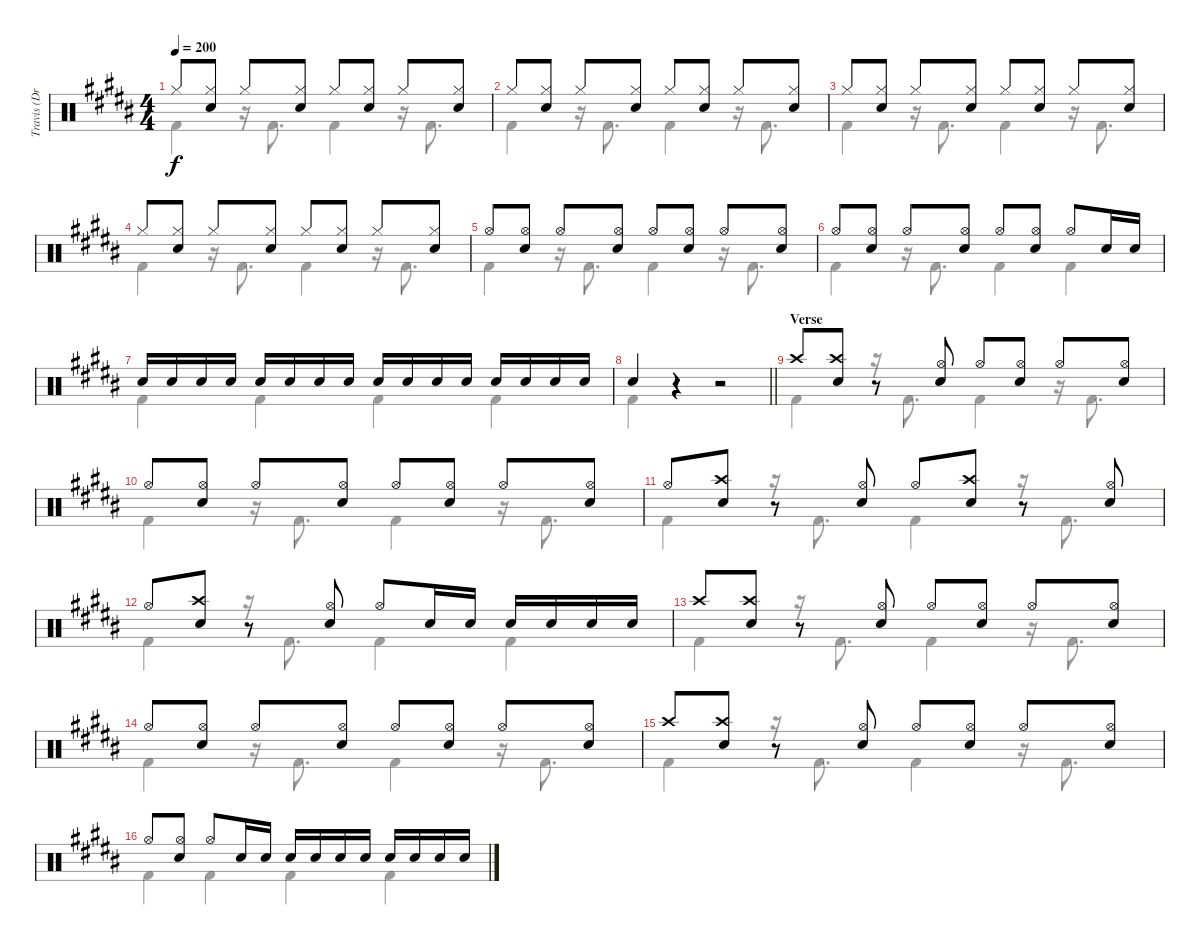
\track ("Travis (Drums)" "Travis (Dr") {instrument percussion}
\staff {score}
\articulation defaults
\voice
\ts (4 4)
\tempo 200
\clef neutral
\ks b "Hi-Hat (closed)".8{dy f}
("Electric Snare (hit)" "Hi-Hat (closed)").8 "Hi-Hat (closed)".8 ("Electric Snare (hit)" "Hi-Hat (closed)").8 "Hi-Hat (closed)".8 ("Electric Snare (hit)" "Hi-Hat (closed)").8 "Hi-Hat (closed)".8 ("Electric Snare (hit)" "Hi-Hat (closed)").8 |
"Hi-Hat (closed)".8 ("Electric Snare (hit)" "Hi-Hat (closed)").8 "Hi-Hat (closed)".8 ("Electric Snare (hit)" "Hi-Hat (closed)").8 "Hi-Hat (closed)".8 ("Electric Snare (hit)" "Hi-Hat (closed)").8 "Hi-Hat (closed)".8 ("Electric Snare (hit)" "Hi-Hat (closed)").8 |
"Hi-Hat (closed)".8 ("Electric Snare (hit)" "Hi-Hat (closed)").8 "Hi-Hat (closed)".8 ("Electric Snare (hit)" "Hi-Hat (closed)").8 "Hi-Hat (closed)".8 ("Electric Snare (hit)" "Hi-Hat (closed)").8 "Hi-Hat (closed)".8 ("Electric Snare (hit)" "Hi-Hat (closed)").8 |
"Hi-Hat (closed)".8 ("Electric Snare (hit)" "Hi-Hat (closed)").8 "Hi-Hat (closed)".8 ("Electric Snare (hit)" "Hi-Hat (closed)").8 "Hi-Hat (closed)".8 ("Electric Snare (hit)" "Hi-Hat (closed)").8 "Hi-Hat (closed)".8 ("Electric Snare (hit)" "Hi-Hat (closed)").8 |
"Hi-Hat (open)".8 ("Electric Snare (hit)" "Hi-Hat (open)").8 "Hi-Hat (open)".8 ("Electric Snare (hit)" "Hi-Hat (open)").8 "Hi-Hat (open)".8 ("Electric Snare (hit)" "Hi-Hat (open)").8 "Hi-Hat (open)".8 ("Electric Snare (hit)" "Hi-Hat (open)").8 |
"Hi-Hat (open)".8 ("Electric Snare (hit)" "Hi-Hat (open)").8 "Hi-Hat (open)".8 ("Electric Snare (hit)" "Hi-Hat (open)").8 "Hi-Hat (open)".8 ("Electric Snare (hit)" "Hi-Hat (open)").8 "Hi-Hat (open)".8 "Electric Snare (hit)".16 "Electric Snare (hit)".16 |
"Electric Snare (hit)".16 "Electric Snare (hit)".16 "Electric Snare (hit)".16 "Electric Snare (hit)".16 "Electric Snare (hit)".16 "Electric Snare (hit)".16 "Electric Snare (hit)".16 "Electric Snare (hit)".16 "Electric Snare (hit)".16 "Electric Snare (hit)".16 "Electric Snare (hit)".16 "Electric Snare (hit)".16 "Electric Snare (hit)".16 "Electric Snare (hit)".16 "Electric Snare (hit)".16 "Electric Snare (hit)".16 |
\barLineRight lightlight "Electric Snare (hit)".4
r.4 r.2 |
\section ("" "Verse")
"Crash high (hit)".8 ("Crash high (hit)" "Electric Snare (hit)").8 r.8 ("Electric Snare (hit)" "Hi-Hat (open)").8 "Hi-Hat (open)".8 ("Electric Snare (hit)" "Hi-Hat (open)").8 "Hi-Hat (open)".8 ("Electric Snare (hit)" "Hi-Hat (open)").8 |
"Hi-Hat (open)".8 ("Electric Snare (hit)" "Hi-Hat (open)").8 "Hi-Hat (open)".8 ("Electric Snare (hit)" "Hi-Hat (open)").8 "Hi-Hat (open)".8 ("Electric Snare (hit)" "Hi-Hat (open)").8 "Hi-Hat (open)".8 ("Electric Snare (hit)" "Hi-Hat (open)").8 |
"Hi-Hat (open)".8 ("Crash high (hit)" "Electric Snare (hit)").8 r.8 ("Electric Snare (hit)" "Hi-Hat (open)").8 "Hi-Hat (open)".8 ("Crash high (hit)" "Electric Snare (hit)").8 r.8 ("Electric Snare (hit)" "Hi-Hat (open)").8 |
"Hi-Hat (open)".8 ("Crash high (hit)" "Electric Snare (hit)").8 r.8 ("Electric Snare (hit)" "Hi-Hat (open)").8 "Hi-Hat (open)".8 "Electric Snare (hit)".16 "Electric Snare (hit)".16 "Electric Snare (hit)".16 "Electric Snare (hit)".16 "Electric Snare (hit)".16 "Electric Snare (hit)".16 |
"Crash high (hit)".8 ("Crash high (hit)" "Electric Snare (hit)").8 r.8 ("Electric Snare (hit)" "Hi-Hat (open)").8 "Hi-Hat (open)".8 ("Electric Snare (hit)" "Hi-Hat (open)").8 "Hi-Hat (open)".8 ("Electric Snare (hit)" "Hi-Hat (open)").8 |
"Hi-Hat (open)".8 ("Electric Snare (hit)" "Hi-Hat (open)").8 "Hi-Hat (open)".8 ("Electric Snare (hit)" "Hi-Hat (open)").8 "Hi-Hat (open)".8 ("Electric Snare (hit)" "Hi-Hat (open)").8 "Hi-Hat (open)".8 ("Electric Snare (hit)" "Hi-Hat (open)").8 |
"Crash high (hit)".8 ("Crash high (hit)" "Electric Snare (hit)").8 r.8 ("Electric Snare (hit)" "Hi-Hat (open)").8 "Hi-Hat (open)".8 ("Electric Snare (hit)" "Hi-Hat (open)").8 "Hi-Hat (open)".8 ("Electric Snare (hit)" "Hi-Hat (open)").8 |
"Hi-Hat (open)".8 ("Electric Snare (hit)" "Hi-Hat (open)").8 "Hi-Hat (open)".8 "Electric Snare (hit)".16 "Electric Snare (hit)".16 "Electric Snare (hit)".16 "Electric Snare (hit)".16 "Electric Snare (hit)".16 "Electric Snare (hit)".16 "Electric Snare (hit)".16 "Electric Snare (hit)".16 "Electric Snare (hit)".16 "Electric Snare (hit)".16
\voice
\clef neutral
\ottava regular
\simile none
\ks b "Kick (hit) 2".4{dy f}
r.16 "Kick (hit) 2".8{d} "Kick (hit) 2".4 r.16 "Kick (hit) 2".8{d} |
"Kick (hit) 2".4 r.16 "Kick (hit) 2".8{d} "Kick (hit) 2".4 r.16 "Kick (hit) 2".8{d} |
"Kick (hit) 2".4 r.16 "Kick (hit) 2".8{d} "Kick (hit) 2".4 r.16 "Kick (hit) 2".8{d} |
"Kick (hit) 2".4 r.16 "Kick (hit) 2".8{d} "Kick (hit) 2".4 r.16 "Kick (hit) 2".8{d} |
"Kick (hit) 2".4 r.16 "Kick (hit) 2".8{d} "Kick (hit) 2".4 r.16 "Kick (hit) 2".8{d} |
"Kick (hit) 2".4 r.16 "Kick (hit) 2".8{d} "Kick (hit) 2".4 "Kick (hit) 2".4 |
"Kick (hit) 2".4 "Kick (hit) 2".4 "Kick (hit) 2".4 "Kick (hit) 2".4 |
\barLineRight lightlight "Kick (hit) 2".4
r.4 r.2 |
"Kick (hit) 2".4 r.16 "Kick (hit) 2".8{d} "Kick (hit) 2".4 r.16 "Kick (hit) 2".8{d} |
"Kick (hit) 2".4 r.16 "Kick (hit) 2".8{d} "Kick (hit) 2".4 r.16 "Kick (hit) 2".8{d} |
"Kick (hit) 2".4 r.16 "Kick (hit) 2".8{d} "Kick (hit) 2".4 r.16 "Kick (hit) 2".8{d} |
"Kick (hit) 2".4 r.16 "Kick (hit) 2".8{d} "Kick (hit) 2".4 "Kick (hit) 2".4 |
"Kick (hit) 2".4 r.16 "Kick (hit) 2".8{d} "Kick (hit) 2".4 r.16 "Kick (hit) 2".8{d} |
"Kick (hit) 2".4 r.16 "Kick (hit) 2".8{d} "Kick (hit) 2".4 r.16 "Kick (hit) 2".8{d} |
"Kick (hit) 2".4 r.16 "Kick (hit) 2".8{d} "Kick (hit) 2".4 r.16 "Kick (hit) 2".8{d} |
"Kick (hit) 2".4 "Kick (hit) 2".4 "Kick (hit) 2".4 "Kick (hit) 2".4
